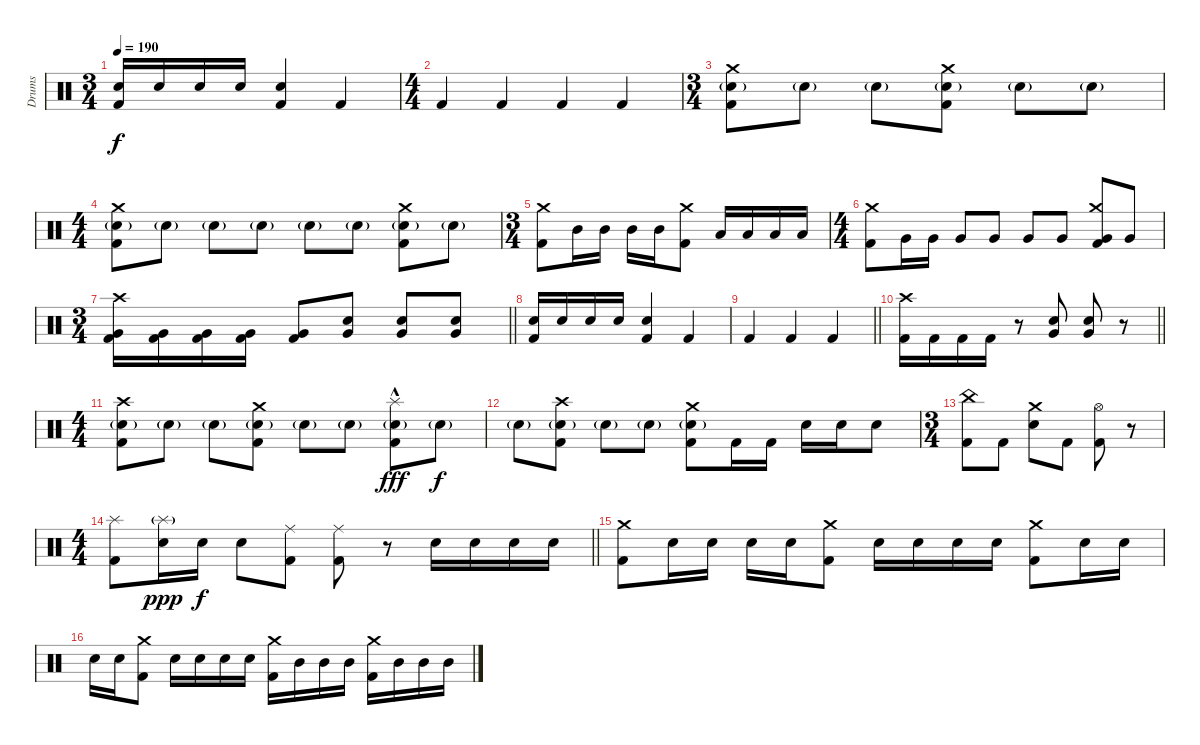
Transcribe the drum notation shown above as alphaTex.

\track ("Drums" "Drums") {instrument percussion}
\staff {score}
\articulation defaults
\ts (3 4)
\tempo 190
\clef neutral
\ks c
("Electric Snare (hit)" "Kick (hit) 2").16{dy f} "Electric Snare (hit)".16 "Electric Snare (hit)".16 "Electric Snare (hit)".16 ("Electric Snare (hit)" "Kick (hit) 2").4 "Kick (hit) 2".4 |
\ts (4 4)
"Kick (hit) 2".4 "Kick (hit) 2".4 "Kick (hit) 2".4 "Kick (hit) 2".4 |
\ts (3 4)
("Crash medium (hit)" "Electric Snare (hit)"{g} "Kick (hit) 2").8 "Electric Snare (hit)"{g}.8 "Electric Snare (hit)"{g}.8 ("Crash medium (hit)" "Electric Snare (hit)"{g} "Kick (hit) 2").8 "Electric Snare (hit)"{g}.8 "Electric Snare (hit)"{g}.8 |
\ts (4 4)
("Crash medium (hit)" "Electric Snare (hit)"{g} "Kick (hit) 2").8 "Electric Snare (hit)"{g}.8 "Electric Snare (hit)"{g}.8 "Electric Snare (hit)"{g}.8 "Electric Snare (hit)"{g}.8 "Electric Snare (hit)"{g}.8 ("Crash medium (hit)" "Electric Snare (hit)"{g} "Kick (hit) 2").8 "Electric Snare (hit)"{g}.8 |
\ts (3 4)
("Crash medium (hit)" "Kick (hit) 2").8 "Mid Tom (hit)".16 "Mid Tom (hit)".16 "Mid Tom (hit)".16 "Mid Tom (hit)".16 ("Crash medium (hit)" "Kick (hit) 2").8 "Low Tom (hit)".16 "Low Tom (hit)".16 "Low Tom (hit)".16 "Low Tom (hit)".16 |
\ts (4 4)
("Crash medium (hit)" "Kick (hit) 2").8 "Very Low Tom (hit)".16 "Very Low Tom (hit)".16 "Very Low Tom (hit)".8 "Very Low Tom (hit)".8 "Very Low Tom (hit)".8 "Very Low Tom (hit)".8 ("Crash medium (hit)" "Very Low Tom (hit)" "Kick (hit) 2").8 "Very Low Tom (hit)".8 |
\ts (3 4)
\barLineRight lightlight
("Crash high (hit)" "Very Low Tom (hit)" "Kick (hit) 2").16 ("Very Low Tom (hit)" "Kick (hit) 2").16 ("Very Low Tom (hit)" "Kick (hit) 2").16 ("Very Low Tom (hit)" "Kick (hit) 2").16 ("Very Low Tom (hit)" "Kick (hit) 2").8 ("Electric Snare (hit)" "Very Low Tom (hit)").8 ("Electric Snare (hit)" "Very Low Tom (hit)").8 ("Electric Snare (hit)" "Very Low Tom (hit)").8 |
("Electric Snare (hit)" "Kick (hit) 2").16 "Electric Snare (hit)".16 "Electric Snare (hit)".16 "Electric Snare (hit)".16 ("Electric Snare (hit)" "Kick (hit) 2").4 "Kick (hit) 2".4 |
\barLineRight lightlight "Kick (hit) 2".4 "Kick (hit) 2".4 "Kick (hit) 2".4
|
\barLineRight lightlight
("Crash high (hit)" "Kick (hit) 2").16 "Kick (hit) 2".16 "Kick (hit) 2".16 "Kick (hit) 2".16 r.8 ("Electric Snare (hit)" "Very Low Tom (hit)").8 ("Electric Snare (hit)" "Very Low Tom (hit)").8 r.8 |
\ts (4 4)
("Crash high (hit)" "Electric Snare (hit)"{g} "Kick (hit) 2").8 "Electric Snare (hit)"{g}.8 "Electric Snare (hit)"{g}.8 ("Crash medium (hit)" "Electric Snare (hit)"{g} "Kick (hit) 2").8 "Electric Snare (hit)"{g}.8 "Electric Snare (hit)"{g}.8 ("Splash (hit)"{hac} "Electric Snare (hit)"{g} "Kick (hit) 2").8{dy fff} "Electric Snare (hit)"{g}.8{dy f} |
"Electric Snare (hit)"{g}.8 ("Crash high (hit)" "Electric Snare (hit)"{g} "Kick (hit) 2").8 "Electric Snare (hit)"{g}.8 "Electric Snare (hit)"{g}.8 ("Crash medium (hit)" "Electric Snare (hit)"{g} "Kick (hit) 2").8 "Kick (hit) 2".16 "Kick (hit) 2".16 "Electric Snare (hit)".16 "Electric Snare (hit)".16 "Electric Snare (hit)".8 |
\ts (3 4)
("China (hit)" "Kick (hit) 2").8 "Kick (hit) 2".8 ("Crash medium (hit)" "Electric Snare (hit)").8 "Kick (hit) 2".8 ("Hi-Hat (open)" "Kick (hit) 2").8 r.8 |
\ts (4 4)
\barLineRight lightlight
("Splash (hit)" "Kick (hit) 2").8 ("Splash (hit)"{g} "Electric Snare (hit)").16{dy ppp} "Electric Snare (hit)".16{dy f} "Electric Snare (hit)".8 ("Ride (middle)" "Kick (hit) 2").8 ("Ride (middle)" "Kick (hit) 2").8 r.8 "Electric Snare (hit)".16 "Electric Snare (hit)".16 "Electric Snare (hit)".16 "Electric Snare (hit)".16 |
("Crash medium (hit)" "Kick (hit) 2").8 "Electric Snare (hit)".16 "Electric Snare (hit)".16 "Electric Snare (hit)".16 "Electric Snare (hit)".16 ("Crash medium (hit)" "Kick (hit) 2").8 "Electric Snare (hit)".16 "Electric Snare (hit)".16 "Electric Snare (hit)".16 "Electric Snare (hit)".16 ("Crash medium (hit)" "Kick (hit) 2").8 "Electric Snare (hit)".16 "Electric Snare (hit)".16 |
"Electric Snare (hit)".16 "Electric Snare (hit)".16 ("Crash medium (hit)" "Kick (hit) 2").8 "Electric Snare (hit)".16 "Electric Snare (hit)".16 "Electric Snare (hit)".16 "Electric Snare (hit)".16 ("Crash medium (hit)" "Kick (hit) 2").16 "Mid Tom (hit)".16 "Mid Tom (hit)".16 "Mid Tom (hit)".16 ("Crash medium (hit)" "Kick (hit) 2").16 "Mid Tom (hit)".16 "Mid Tom (hit)".16 "Mid Tom (hit)".16
